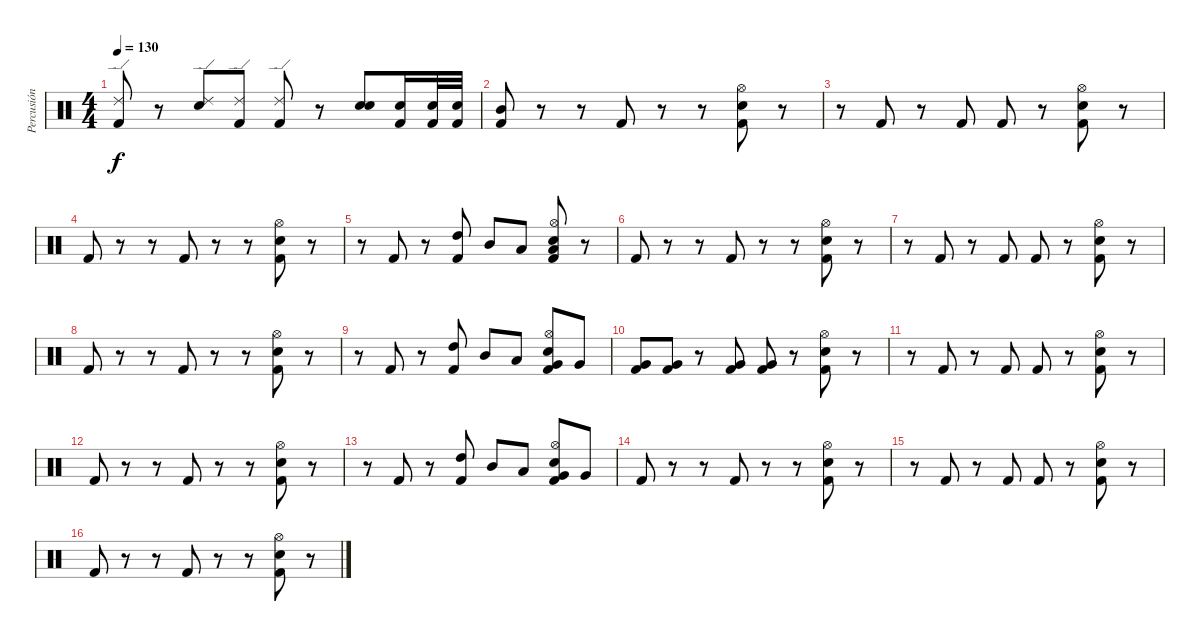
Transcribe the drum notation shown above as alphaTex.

\track ("Percusión" "Percusión") {instrument percussion}
\staff {score}
\articulation defaults
\ts (4 4)
\tempo 130
\clef neutral
\ks c
("Kick (hit) 2" "Ride (edge) 2").8{dy f} r.8 ("Snare (hit) 2" "Ride (edge) 2").8 ("Kick (hit) 2" "Ride (edge) 2").8 ("Kick (hit) 2" "Ride (edge) 2").8 r.8 ("Snare (hit) 2" "Electric Snare (hit)").8 ("Kick (hit) 2" "Snare (hit) 2").16 ("Kick (hit) 2" "Snare (hit) 2").32 ("Kick (hit) 2" "Snare (hit) 2").32 |
("Kick (hit) 2" "Mid Tom (hit)").8 r.8 r.8 "Kick (hit) 2".8 r.8 r.8 ("Kick (hit) 2" "Snare (hit) 2" "Hi-Hat (open)").8 r.8 |
r.8 "Kick (hit) 2".8 r.8 "Kick (hit) 2".8 "Kick (hit) 2".8 r.8 ("Kick (hit) 2" "Snare (hit) 2" "Hi-Hat (open)").8 r.8 |
"Kick (hit) 2".8 r.8 r.8 "Kick (hit) 2".8 r.8 r.8 ("Kick (hit) 2" "Snare (hit) 2" "Hi-Hat (open)").8 r.8 |
r.8 "Kick (hit) 2".8 r.8 ("Kick (hit) 2" "High Tom (hit)").8 "Mid Tom (hit)".8 "Low Tom (hit)".8 ("Kick (hit) 2" "Snare (hit) 2" "Low Floor Tom (hit)" "Hi-Hat (open)").8 r.8 |
"Kick (hit) 2".8 r.8 r.8 "Kick (hit) 2".8 r.8 r.8 ("Kick (hit) 2" "Snare (hit) 2" "Hi-Hat (open)").8 r.8 |
r.8 "Kick (hit) 2".8 r.8 "Kick (hit) 2".8 "Kick (hit) 2".8 r.8 ("Kick (hit) 2" "Snare (hit) 2" "Hi-Hat (open)").8 r.8 |
"Kick (hit) 2".8 r.8 r.8 "Kick (hit) 2".8 r.8 r.8 ("Kick (hit) 2" "Snare (hit) 2" "Hi-Hat (open)").8 r.8 |
r.8 "Kick (hit) 2".8 r.8 ("Kick (hit) 2" "High Tom (hit)").8 "Mid Tom (hit)".8 "Low Tom (hit)".8 ("Kick (hit) 2" "Snare (hit) 2" "Very Low Tom (hit)" "Hi-Hat (open)").8 "Very Low Tom (hit)".8 |
("Kick (hit) 2" "Very Low Tom (hit)").8 ("Kick (hit) 2" "Very Low Tom (hit)").8 r.8 ("Kick (hit) 2" "Very Low Tom (hit)").8 ("Kick (hit) 2" "Very Low Tom (hit)").8 r.8 ("Kick (hit) 2" "Snare (hit) 2" "Hi-Hat (open)").8 r.8 |
r.8 "Kick (hit) 2".8 r.8 "Kick (hit) 2".8 "Kick (hit) 2".8 r.8 ("Kick (hit) 2" "Snare (hit) 2" "Hi-Hat (open)").8 r.8 |
"Kick (hit) 2".8 r.8 r.8 "Kick (hit) 2".8 r.8 r.8 ("Kick (hit) 2" "Snare (hit) 2" "Hi-Hat (open)").8 r.8 |
r.8 "Kick (hit) 2".8 r.8 ("Kick (hit) 2" "High Tom (hit)").8 "Mid Tom (hit)".8 "Low Tom (hit)".8 ("Kick (hit) 2" "Snare (hit) 2" "Very Low Tom (hit)" "Hi-Hat (open)").8 "Very Low Tom (hit)".8 |
"Kick (hit) 2".8 r.8 r.8 "Kick (hit) 2".8 r.8 r.8 ("Kick (hit) 2" "Snare (hit) 2" "Hi-Hat (open)").8 r.8 |
r.8 "Kick (hit) 2".8 r.8 "Kick (hit) 2".8 "Kick (hit) 2".8 r.8 ("Kick (hit) 2" "Snare (hit) 2" "Hi-Hat (open)").8 r.8 |
"Kick (hit) 2".8 r.8 r.8 "Kick (hit) 2".8 r.8 r.8 ("Kick (hit) 2" "Snare (hit) 2" "Hi-Hat (open)").8 r.8
